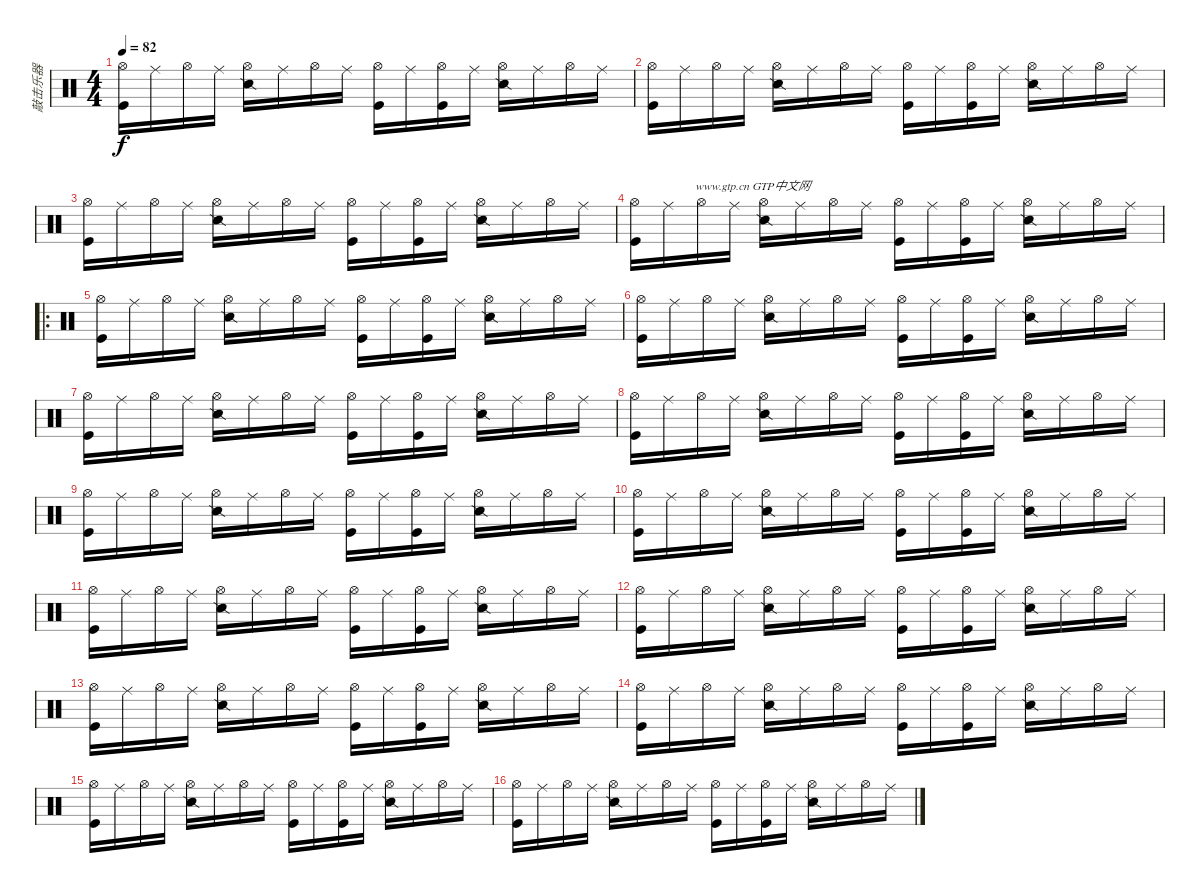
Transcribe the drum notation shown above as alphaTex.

\track ("敲击乐器" "敲击乐器") {instrument percussion}
\staff {score}
\articulation defaults
\ts (4 4)
\tempo 82
\clef neutral
\ks c
("Hi-Hat (open)" "Kick (hit)").16{dy f} "Ride (middle)".16 "Hi-Hat (open)".16 "Ride (middle)".16 ("Hi-Hat (open)" "Snare (side stick) 2").16 "Ride (middle)".16 "Hi-Hat (open)".16 "Ride (middle)".16 ("Hi-Hat (open)" "Kick (hit)").16 "Ride (middle)".16 ("Hi-Hat (open)" "Kick (hit)").16 "Ride (middle)".16 ("Hi-Hat (open)" "Snare (side stick) 2").16 "Ride (middle)".16 "Hi-Hat (open)".16 "Ride (middle)".16 |
("Hi-Hat (open)" "Kick (hit)").16 "Ride (middle)".16 "Hi-Hat (open)".16 "Ride (middle)".16 ("Hi-Hat (open)" "Snare (side stick) 2").16 "Ride (middle)".16 "Hi-Hat (open)".16 "Ride (middle)".16 ("Hi-Hat (open)" "Kick (hit)").16 "Ride (middle)".16 ("Hi-Hat (open)" "Kick (hit)").16 "Ride (middle)".16 ("Hi-Hat (open)" "Snare (side stick) 2").16 "Ride (middle)".16 "Hi-Hat (open)".16 "Ride (middle)".16 |
("Hi-Hat (open)" "Kick (hit)").16 "Ride (middle)".16 "Hi-Hat (open)".16 "Ride (middle)".16 ("Hi-Hat (open)" "Snare (side stick) 2").16 "Ride (middle)".16 "Hi-Hat (open)".16 "Ride (middle)".16 ("Hi-Hat (open)" "Kick (hit)").16 "Ride (middle)".16 ("Hi-Hat (open)" "Kick (hit)").16 "Ride (middle)".16 ("Hi-Hat (open)" "Snare (side stick) 2").16 "Ride (middle)".16 "Hi-Hat (open)".16 "Ride (middle)".16 |
("Hi-Hat (open)" "Kick (hit)").16{txt "                    www.gtp.cn GTP中文网"} "Ride (middle)".16 "Hi-Hat (open)".16 "Ride (middle)".16 ("Hi-Hat (open)" "Snare (side stick) 2").16 "Ride (middle)".16 "Hi-Hat (open)".16 "Ride (middle)".16 ("Hi-Hat (open)" "Kick (hit)").16 "Ride (middle)".16 ("Hi-Hat (open)" "Kick (hit)").16 "Ride (middle)".16 ("Hi-Hat (open)" "Snare (side stick) 2").16 "Ride (middle)".16 "Hi-Hat (open)".16 "Ride (middle)".16 |
\ro
("Hi-Hat (open)" "Kick (hit)").16 "Ride (middle)".16 "Hi-Hat (open)".16 "Ride (middle)".16 ("Hi-Hat (open)" "Snare (side stick) 2").16 "Ride (middle)".16 "Hi-Hat (open)".16 "Ride (middle)".16 ("Hi-Hat (open)" "Kick (hit)").16 "Ride (middle)".16 ("Hi-Hat (open)" "Kick (hit)").16 "Ride (middle)".16 ("Hi-Hat (open)" "Snare (side stick) 2").16 "Ride (middle)".16 "Hi-Hat (open)".16 "Ride (middle)".16 |
("Hi-Hat (open)" "Kick (hit)").16 "Ride (middle)".16 "Hi-Hat (open)".16 "Ride (middle)".16 ("Hi-Hat (open)" "Snare (side stick) 2").16 "Ride (middle)".16 "Hi-Hat (open)".16 "Ride (middle)".16 ("Hi-Hat (open)" "Kick (hit)").16 "Ride (middle)".16 ("Hi-Hat (open)" "Kick (hit)").16 "Ride (middle)".16 ("Hi-Hat (open)" "Snare (side stick) 2").16 "Ride (middle)".16 "Hi-Hat (open)".16 "Ride (middle)".16 |
("Hi-Hat (open)" "Kick (hit)").16 "Ride (middle)".16 "Hi-Hat (open)".16 "Ride (middle)".16 ("Hi-Hat (open)" "Snare (side stick) 2").16 "Ride (middle)".16 "Hi-Hat (open)".16 "Ride (middle)".16 ("Hi-Hat (open)" "Kick (hit)").16 "Ride (middle)".16 ("Hi-Hat (open)" "Kick (hit)").16 "Ride (middle)".16 ("Hi-Hat (open)" "Snare (side stick) 2").16 "Ride (middle)".16 "Hi-Hat (open)".16 "Ride (middle)".16 |
("Hi-Hat (open)" "Kick (hit)").16 "Ride (middle)".16 "Hi-Hat (open)".16 "Ride (middle)".16 ("Hi-Hat (open)" "Snare (side stick) 2").16 "Ride (middle)".16 "Hi-Hat (open)".16 "Ride (middle)".16 ("Hi-Hat (open)" "Kick (hit)").16 "Ride (middle)".16 ("Hi-Hat (open)" "Kick (hit)").16 "Ride (middle)".16 ("Hi-Hat (open)" "Snare (side stick) 2").16 "Ride (middle)".16 "Hi-Hat (open)".16 "Ride (middle)".16 |
("Hi-Hat (open)" "Kick (hit)").16 "Ride (middle)".16 "Hi-Hat (open)".16 "Ride (middle)".16 ("Hi-Hat (open)" "Snare (side stick) 2").16 "Ride (middle)".16 "Hi-Hat (open)".16 "Ride (middle)".16 ("Hi-Hat (open)" "Kick (hit)").16 "Ride (middle)".16 ("Hi-Hat (open)" "Kick (hit)").16 "Ride (middle)".16 ("Hi-Hat (open)" "Snare (side stick) 2").16 "Ride (middle)".16 "Hi-Hat (open)".16 "Ride (middle)".16 |
("Hi-Hat (open)" "Kick (hit)").16 "Ride (middle)".16 "Hi-Hat (open)".16 "Ride (middle)".16 ("Hi-Hat (open)" "Snare (side stick) 2").16 "Ride (middle)".16 "Hi-Hat (open)".16 "Ride (middle)".16 ("Hi-Hat (open)" "Kick (hit)").16 "Ride (middle)".16 ("Hi-Hat (open)" "Kick (hit)").16 "Ride (middle)".16 ("Hi-Hat (open)" "Snare (side stick) 2").16 "Ride (middle)".16 "Hi-Hat (open)".16 "Ride (middle)".16 |
("Hi-Hat (open)" "Kick (hit)").16 "Ride (middle)".16 "Hi-Hat (open)".16 "Ride (middle)".16 ("Hi-Hat (open)" "Snare (side stick) 2").16 "Ride (middle)".16 "Hi-Hat (open)".16 "Ride (middle)".16 ("Hi-Hat (open)" "Kick (hit)").16 "Ride (middle)".16 ("Hi-Hat (open)" "Kick (hit)").16 "Ride (middle)".16 ("Hi-Hat (open)" "Snare (side stick) 2").16 "Ride (middle)".16 "Hi-Hat (open)".16 "Ride (middle)".16 |
("Hi-Hat (open)" "Kick (hit)").16 "Ride (middle)".16 "Hi-Hat (open)".16 "Ride (middle)".16 ("Hi-Hat (open)" "Snare (side stick) 2").16 "Ride (middle)".16 "Hi-Hat (open)".16 "Ride (middle)".16 ("Hi-Hat (open)" "Kick (hit)").16 "Ride (middle)".16 ("Hi-Hat (open)" "Kick (hit)").16 "Ride (middle)".16 ("Hi-Hat (open)" "Snare (side stick) 2").16 "Ride (middle)".16 "Hi-Hat (open)".16 "Ride (middle)".16 |
("Hi-Hat (open)" "Kick (hit)").16 "Ride (middle)".16 "Hi-Hat (open)".16 "Ride (middle)".16 ("Hi-Hat (open)" "Snare (side stick) 2").16 "Ride (middle)".16 "Hi-Hat (open)".16 "Ride (middle)".16 ("Hi-Hat (open)" "Kick (hit)").16 "Ride (middle)".16 ("Hi-Hat (open)" "Kick (hit)").16 "Ride (middle)".16 ("Hi-Hat (open)" "Snare (side stick) 2").16 "Ride (middle)".16 "Hi-Hat (open)".16 "Ride (middle)".16 |
("Hi-Hat (open)" "Kick (hit)").16 "Ride (middle)".16 "Hi-Hat (open)".16 "Ride (middle)".16 ("Hi-Hat (open)" "Snare (side stick) 2").16 "Ride (middle)".16 "Hi-Hat (open)".16 "Ride (middle)".16 ("Hi-Hat (open)" "Kick (hit)").16 "Ride (middle)".16 ("Hi-Hat (open)" "Kick (hit)").16 "Ride (middle)".16 ("Hi-Hat (open)" "Snare (side stick) 2").16 "Ride (middle)".16 "Hi-Hat (open)".16 "Ride (middle)".16 |
("Hi-Hat (open)" "Kick (hit)").16 "Ride (middle)".16 "Hi-Hat (open)".16 "Ride (middle)".16 ("Hi-Hat (open)" "Snare (side stick) 2").16 "Ride (middle)".16 "Hi-Hat (open)".16 "Ride (middle)".16 ("Hi-Hat (open)" "Kick (hit)").16 "Ride (middle)".16 ("Hi-Hat (open)" "Kick (hit)").16 "Ride (middle)".16 ("Hi-Hat (open)" "Snare (side stick) 2").16 "Ride (middle)".16 "Hi-Hat (open)".16 "Ride (middle)".16 |
("Hi-Hat (open)" "Kick (hit)").16 "Ride (middle)".16 "Hi-Hat (open)".16 "Ride (middle)".16 ("Hi-Hat (open)" "Snare (side stick) 2").16 "Ride (middle)".16 "Hi-Hat (open)".16 "Ride (middle)".16 ("Hi-Hat (open)" "Kick (hit)").16 "Ride (middle)".16 ("Hi-Hat (open)" "Kick (hit)").16 "Ride (middle)".16 ("Hi-Hat (open)" "Snare (side stick) 2").16 "Ride (middle)".16 "Hi-Hat (open)".16 "Ride (middle)".16
